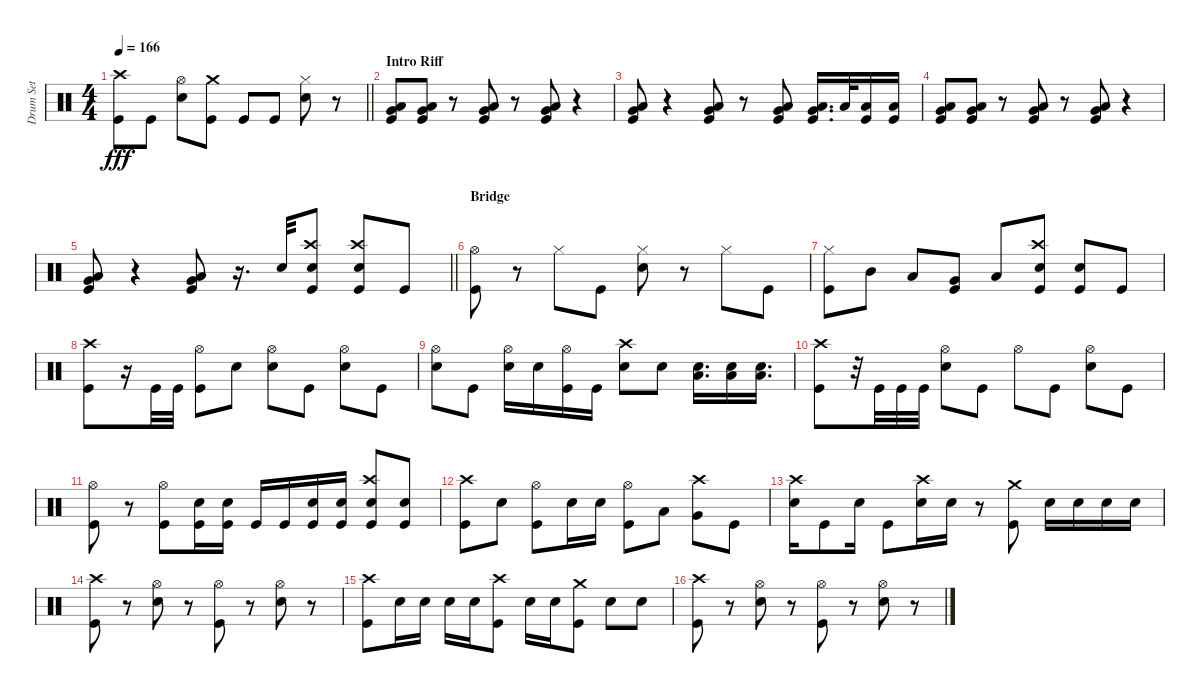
\track ("Drum Set" "Drum Set") {instrument percussion}
\staff {score}
\articulation defaults
\ts (4 4)
\tempo 166
\clef neutral
\barLineRight lightlight
\ks c
("Kick (hit)" "Crash high (hit)").8{dy fff} "Kick (hit)".8 ("Electric Snare (hit)" "Hi-Hat (open)").8 ("Kick (hit)" "Crash medium (hit)").8 "Kick (hit)".8 "Kick (hit)".8 ("Electric Snare (hit)" "Hi-Hat (closed)").8 r.8 |
\section ("" "Intro Riff")
("Kick (hit)" "Low Floor Tom (hit)" "Very Low Tom (hit)").8 ("Kick (hit)" "Low Floor Tom (hit)" "Very Low Tom (hit)").8 r.8 ("Kick (hit)" "Low Floor Tom (hit)" "Very Low Tom (hit)").8 r.8 ("Kick (hit)" "Low Floor Tom (hit)" "Very Low Tom (hit)").8 r.4 |
("Kick (hit)" "Low Floor Tom (hit)" "Very Low Tom (hit)").8 r.4 ("Kick (hit)" "Low Floor Tom (hit)" "Very Low Tom (hit)").8 r.8 ("Kick (hit)" "Low Floor Tom (hit)" "Very Low Tom (hit)").8 ("Kick (hit)" "Low Floor Tom (hit)" "Very Low Tom (hit)").16{d} "Low Floor Tom (hit)".32 ("Kick (hit)" "Low Floor Tom (hit)").16 ("Kick (hit)" "Low Floor Tom (hit)").16 |
("Kick (hit)" "Low Floor Tom (hit)" "Very Low Tom (hit)").8 ("Kick (hit)" "Low Floor Tom (hit)" "Very Low Tom (hit)").8 r.8 ("Kick (hit)" "Low Floor Tom (hit)" "Very Low Tom (hit)").8 r.8 ("Kick (hit)" "Low Floor Tom (hit)" "Very Low Tom (hit)").8 r.4 |
\barLineRight lightlight
("Kick (hit)" "Low Floor Tom (hit)" "Very Low Tom (hit)").8 r.4 ("Kick (hit)" "Low Floor Tom (hit)" "Very Low Tom (hit)").8 r.16{d} "Electric Snare (hit)".32 ("Electric Snare (hit)" "Kick (hit)" "Crash high (hit)").8 ("Electric Snare (hit)" "Kick (hit)" "Crash high (hit)").8 "Kick (hit)".8 |
\section ("" "Bridge")
("Kick (hit)" "Hi-Hat (open)").8 r.8 "Hi-Hat (closed)".8 "Kick (hit)".8 ("Electric Snare (hit)" "Hi-Hat (closed)").8 r.8 "Hi-Hat (closed)".8 "Kick (hit)".8 |
("Kick (hit)" "Hi-Hat (closed)").8 "Mid Tom (hit)".8 "Low Tom (hit)".8 ("Kick (hit)" "Very Low Tom (hit)").8 "Low Tom (hit)".8 ("Electric Snare (hit)" "Kick (hit)" "Crash high (hit)").8 ("Electric Snare (hit)" "Kick (hit)").8 "Kick (hit)".8 |
("Kick (hit)" "Crash high (hit)").8 r.16 "Kick (hit)".32 "Kick (hit)".32 ("Kick (hit)" "Hi-Hat (open)").8 "Electric Snare (hit)".8 ("Electric Snare (hit)" "Hi-Hat (open)").8 "Kick (hit)".8 ("Electric Snare (hit)" "Hi-Hat (open)").8 "Kick (hit)".8 |
("Electric Snare (hit)" "Hi-Hat (open)").8 "Kick (hit)".8 ("Electric Snare (hit)" "Hi-Hat (open)").16 "Electric Snare (hit)".16 ("Kick (hit)" "Hi-Hat (open)").16 "Kick (hit)".16 ("Electric Snare (hit)" "Crash high (hit)").8 "Electric Snare (hit)".8 ("Electric Snare (hit)" "Low Floor Tom (hit)").16{d} ("Electric Snare (hit)" "Low Floor Tom (hit)").16 ("Electric Snare (hit)" "Low Floor Tom (hit)").16{d} |
("Kick (hit)" "Crash high (hit)").8 r.32 "Kick (hit)".32 "Kick (hit)".32 "Kick (hit)".32 ("Electric Snare (hit)" "Hi-Hat (open)").8 "Kick (hit)".8 "Hi-Hat (open)".8 "Kick (hit)".8 ("Electric Snare (hit)" "Hi-Hat (open)").8 "Kick (hit)".8 |
("Kick (hit)" "Hi-Hat (open)").8 r.8 ("Kick (hit)" "Hi-Hat (open)").8 ("Electric Snare (hit)" "Kick (hit)").16 ("Electric Snare (hit)" "Kick (hit)").16 "Kick (hit)".16 "Kick (hit)".16 ("Electric Snare (hit)" "Kick (hit)").16 ("Electric Snare (hit)" "Kick (hit)").16 ("Electric Snare (hit)" "Kick (hit)" "Crash high (hit)").8 ("Electric Snare (hit)" "Kick (hit)").8 |
("Kick (hit)" "Crash high (hit)").8 "Electric Snare (hit)".8 ("Kick (hit)" "Hi-Hat (open)").8 "Electric Snare (hit)".16 "Electric Snare (hit)".16 ("Kick (hit)" "Hi-Hat (open)").8 "Low Tom (hit)".8 ("Very Low Tom (hit)" "Crash high (hit)").8 "Kick (hit)".8 |
("Electric Snare (hit)" "Crash high (hit)").16 "Kick (hit)".8 "Electric Snare (hit)".16 "Kick (hit)".8 ("Electric Snare (hit)" "Crash high (hit)").16 "Electric Snare (hit)".16 r.8 ("Kick (hit)" "Crash medium (hit)").8 "Electric Snare (hit)".16 "Electric Snare (hit)".16 "Electric Snare (hit)".16 "Electric Snare (hit)".16 |
("Kick (hit)" "Crash high (hit)").8 r.8 ("Electric Snare (hit)" "Hi-Hat (open)").8 r.8 ("Kick (hit)" "Hi-Hat (open)").8 r.8 ("Electric Snare (hit)" "Hi-Hat (open)").8 r.8 |
("Kick (hit)" "Crash high (hit)").8 "Electric Snare (hit)".16 "Electric Snare (hit)".16 "Electric Snare (hit)".16 "Electric Snare (hit)".16 ("Kick (hit)" "Crash high (hit)").8 "Electric Snare (hit)".16 "Electric Snare (hit)".16 ("Kick (hit)" "Crash medium (hit)").8 "Electric Snare (hit)".8 "Electric Snare (hit)".8 |
("Kick (hit)" "Crash high (hit)").8 r.8 ("Electric Snare (hit)" "Hi-Hat (open)").8 r.8 ("Kick (hit)" "Hi-Hat (open)").8 r.8 ("Electric Snare (hit)" "Hi-Hat (open)").8 r.8
